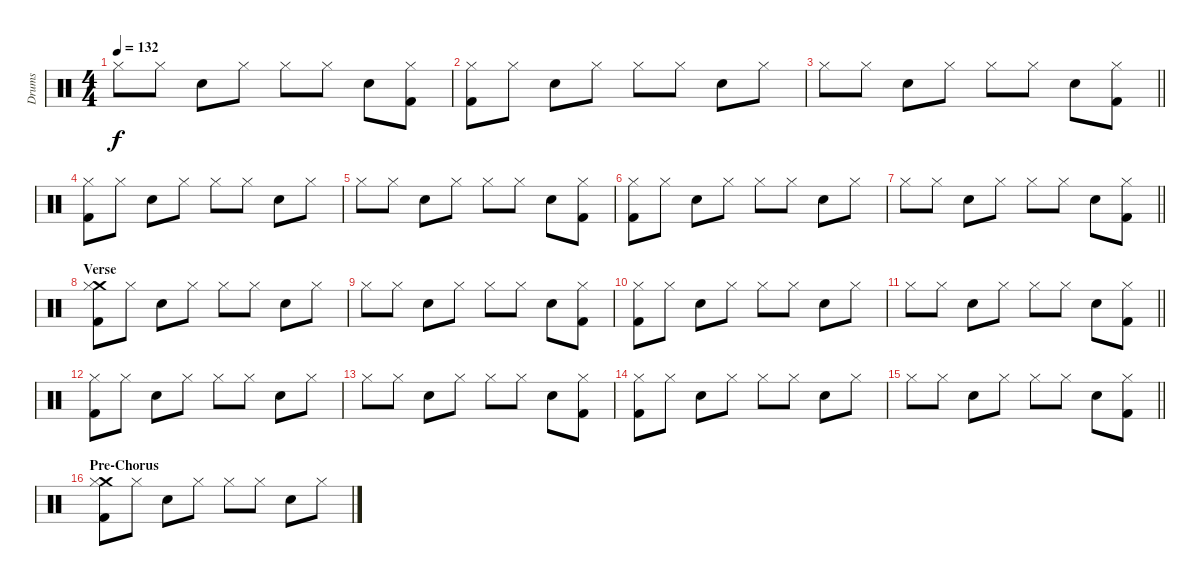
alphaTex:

\track ("Drums" "Drums") {instrument percussion}
\staff
\articulation defaults
\ts (4 4)
\tempo 132
\clef neutral
\ks c "Hi-Hat (closed)".8{dy f} "Hi-Hat (closed)".8 "Snare (hit) 2".8 "Hi-Hat (closed)".8 "Hi-Hat (closed)".8 "Hi-Hat (closed)".8 "Snare (hit) 2".8
("Hi-Hat (closed)" "Kick (hit) 2").8 |
("Hi-Hat (closed)" "Kick (hit) 2").8 "Hi-Hat (closed)".8 "Snare (hit) 2".8 "Hi-Hat (closed)".8 "Hi-Hat (closed)".8 "Hi-Hat (closed)".8 "Snare (hit) 2".8 "Hi-Hat (closed)".8 |
\barLineRight lightlight "Hi-Hat (closed)".8 "Hi-Hat (closed)".8 "Snare (hit) 2".8 "Hi-Hat (closed)".8 "Hi-Hat (closed)".8 "Hi-Hat (closed)".8 "Snare (hit) 2".8
("Hi-Hat (closed)" "Kick (hit) 2").8 |
("Hi-Hat (closed)" "Kick (hit) 2").8 "Hi-Hat (closed)".8 "Snare (hit) 2".8 "Hi-Hat (closed)".8 "Hi-Hat (closed)".8 "Hi-Hat (closed)".8 "Snare (hit) 2".8 "Hi-Hat (closed)".8 |
"Hi-Hat (closed)".8 "Hi-Hat (closed)".8 "Snare (hit) 2".8 "Hi-Hat (closed)".8 "Hi-Hat (closed)".8 "Hi-Hat (closed)".8 "Snare (hit) 2".8 ("Hi-Hat (closed)" "Kick (hit) 2").8 |
("Hi-Hat (closed)" "Kick (hit) 2").8 "Hi-Hat (closed)".8 "Snare (hit) 2".8 "Hi-Hat (closed)".8 "Hi-Hat (closed)".8 "Hi-Hat (closed)".8 "Snare (hit) 2".8 "Hi-Hat (closed)".8 |
\barLineRight lightlight "Hi-Hat (closed)".8 "Hi-Hat (closed)".8 "Snare (hit) 2".8 "Hi-Hat (closed)".8 "Hi-Hat (closed)".8 "Hi-Hat (closed)".8 "Snare (hit) 2".8
("Hi-Hat (closed)" "Kick (hit) 2").8 |
\section ("" "Verse")
("Crash medium (hit)" "Hi-Hat (closed)" "Kick (hit) 2").8 "Hi-Hat (closed)".8 "Snare (hit) 2".8 "Hi-Hat (closed)".8 "Hi-Hat (closed)".8 "Hi-Hat (closed)".8 "Snare (hit) 2".8 "Hi-Hat (closed)".8 |
"Hi-Hat (closed)".8 "Hi-Hat (closed)".8 "Snare (hit) 2".8 "Hi-Hat (closed)".8 "Hi-Hat (closed)".8 "Hi-Hat (closed)".8 "Snare (hit) 2".8 ("Hi-Hat (closed)" "Kick (hit) 2").8 |
("Hi-Hat (closed)" "Kick (hit) 2").8 "Hi-Hat (closed)".8 "Snare (hit) 2".8 "Hi-Hat (closed)".8 "Hi-Hat (closed)".8 "Hi-Hat (closed)".8 "Snare (hit) 2".8 "Hi-Hat (closed)".8 |
\barLineRight lightlight "Hi-Hat (closed)".8 "Hi-Hat (closed)".8 "Snare (hit) 2".8 "Hi-Hat (closed)".8 "Hi-Hat (closed)".8 "Hi-Hat (closed)".8 "Snare (hit) 2".8
("Hi-Hat (closed)" "Kick (hit) 2").8 |
("Hi-Hat (closed)" "Kick (hit) 2").8 "Hi-Hat (closed)".8 "Snare (hit) 2".8 "Hi-Hat (closed)".8 "Hi-Hat (closed)".8 "Hi-Hat (closed)".8 "Snare (hit) 2".8 "Hi-Hat (closed)".8 |
"Hi-Hat (closed)".8 "Hi-Hat (closed)".8 "Snare (hit) 2".8 "Hi-Hat (closed)".8 "Hi-Hat (closed)".8 "Hi-Hat (closed)".8 "Snare (hit) 2".8 ("Hi-Hat (closed)" "Kick (hit) 2").8 |
("Hi-Hat (closed)" "Kick (hit) 2").8 "Hi-Hat (closed)".8 "Snare (hit) 2".8 "Hi-Hat (closed)".8 "Hi-Hat (closed)".8 "Hi-Hat (closed)".8 "Snare (hit) 2".8 "Hi-Hat (closed)".8 |
\barLineRight lightlight "Hi-Hat (closed)".8 "Hi-Hat (closed)".8 "Snare (hit) 2".8 "Hi-Hat (closed)".8 "Hi-Hat (closed)".8 "Hi-Hat (closed)".8 "Snare (hit) 2".8
("Hi-Hat (closed)" "Kick (hit) 2").8 |
\section ("" "Pre-Chorus")
("Crash medium (hit)" "Hi-Hat (closed)" "Kick (hit) 2").8 "Hi-Hat (closed)".8 "Snare (hit) 2".8 "Hi-Hat (closed)".8 "Hi-Hat (closed)".8 "Hi-Hat (closed)".8 "Snare (hit) 2".8 "Hi-Hat (closed)".8
